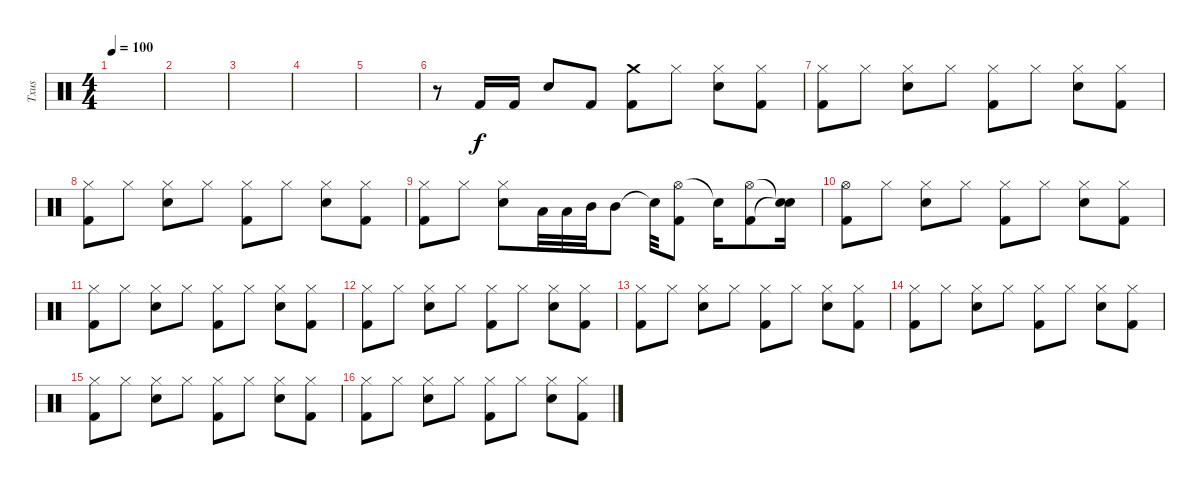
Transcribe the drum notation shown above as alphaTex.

\track ("Txus" "Txus") {instrument percussion}
\staff {score}
\articulation defaults
\ts (4 4)
\tempo 100
\clef neutral
\ks c
|
|
|
|
|
r.8 "Kick (hit) 2".16 "Kick (hit) 2".16 "Electric Snare (hit)".8 "Kick (hit) 2".8 ("Crash medium (hit)" "Kick (hit) 2").8 "Hi-Hat (closed)".8 ("Hi-Hat (closed)" "Electric Snare (hit)").8 ("Hi-Hat (closed)" "Kick (hit) 2").8 |
("Hi-Hat (closed)" "Kick (hit) 2").8 "Hi-Hat (closed)".8 ("Hi-Hat (closed)" "Electric Snare (hit)").8 "Hi-Hat (closed)".8 ("Hi-Hat (closed)" "Kick (hit) 2").8 "Hi-Hat (closed)".8 ("Hi-Hat (closed)" "Electric Snare (hit)").8 ("Hi-Hat (closed)" "Kick (hit) 2").8 |
("Hi-Hat (closed)" "Kick (hit) 2").8 "Hi-Hat (closed)".8 ("Hi-Hat (closed)" "Electric Snare (hit)").8 "Hi-Hat (closed)".8 ("Hi-Hat (closed)" "Kick (hit) 2").8 "Hi-Hat (closed)".8 ("Hi-Hat (closed)" "Electric Snare (hit)").8 ("Hi-Hat (closed)" "Kick (hit) 2").8 |
("Hi-Hat (closed)" "Kick (hit) 2").8 "Hi-Hat (closed)".8 ("Hi-Hat (closed)" "Electric Snare (hit)").8 "Low Tom (hit)".32 "Low Tom (hit)".32 "Mid Tom (hit)".32 "Mid Tom (hit)".8 "Snare (hit)"{t}.32 ("Hi-Hat (open)" "Kick (hit) 2").8 "Snare (hit)"{t}.16 ("Hi-Hat (open)" "Kick (hit) 2").8 ("Snare (hit)"{t} "Snare (hit)"{t}).16 |
("Hi-Hat (open)" "Kick (hit) 2").8 "Hi-Hat (closed)".8 ("Hi-Hat (closed)" "Electric Snare (hit)").8 "Hi-Hat (closed)".8 ("Hi-Hat (closed)" "Kick (hit) 2").8 "Hi-Hat (closed)".8 ("Hi-Hat (closed)" "Electric Snare (hit)").8 ("Hi-Hat (closed)" "Kick (hit) 2").8 |
("Hi-Hat (closed)" "Kick (hit) 2").8 "Hi-Hat (closed)".8 ("Hi-Hat (closed)" "Electric Snare (hit)").8 "Hi-Hat (closed)".8 ("Hi-Hat (closed)" "Kick (hit) 2").8 "Hi-Hat (closed)".8 ("Hi-Hat (closed)" "Electric Snare (hit)").8 ("Hi-Hat (closed)" "Kick (hit) 2").8 |
("Hi-Hat (closed)" "Kick (hit) 2").8 "Hi-Hat (closed)".8 ("Hi-Hat (closed)" "Electric Snare (hit)").8 "Hi-Hat (closed)".8 ("Hi-Hat (closed)" "Kick (hit) 2").8 "Hi-Hat (closed)".8 ("Hi-Hat (closed)" "Electric Snare (hit)").8 ("Hi-Hat (closed)" "Kick (hit) 2").8 |
("Hi-Hat (closed)" "Kick (hit) 2").8 "Hi-Hat (closed)".8 ("Hi-Hat (closed)" "Electric Snare (hit)").8 "Hi-Hat (closed)".8 ("Hi-Hat (closed)" "Kick (hit) 2").8 "Hi-Hat (closed)".8 ("Hi-Hat (closed)" "Electric Snare (hit)").8 ("Hi-Hat (closed)" "Kick (hit) 2").8 |
("Hi-Hat (closed)" "Kick (hit) 2").8 "Hi-Hat (closed)".8 ("Hi-Hat (closed)" "Electric Snare (hit)").8 "Hi-Hat (closed)".8 ("Hi-Hat (closed)" "Kick (hit) 2").8 "Hi-Hat (closed)".8 ("Hi-Hat (closed)" "Electric Snare (hit)").8 ("Hi-Hat (closed)" "Kick (hit) 2").8 |
("Hi-Hat (closed)" "Kick (hit) 2").8 "Hi-Hat (closed)".8 ("Hi-Hat (closed)" "Electric Snare (hit)").8 "Hi-Hat (closed)".8 ("Hi-Hat (closed)" "Kick (hit) 2").8 "Hi-Hat (closed)".8 ("Hi-Hat (closed)" "Electric Snare (hit)").8 ("Hi-Hat (closed)" "Kick (hit) 2").8 |
("Hi-Hat (closed)" "Kick (hit) 2").8 "Hi-Hat (closed)".8 ("Hi-Hat (closed)" "Electric Snare (hit)").8 "Hi-Hat (closed)".8 ("Hi-Hat (closed)" "Kick (hit) 2").8 "Hi-Hat (closed)".8 ("Hi-Hat (closed)" "Electric Snare (hit)").8 ("Hi-Hat (closed)" "Kick (hit) 2").8
